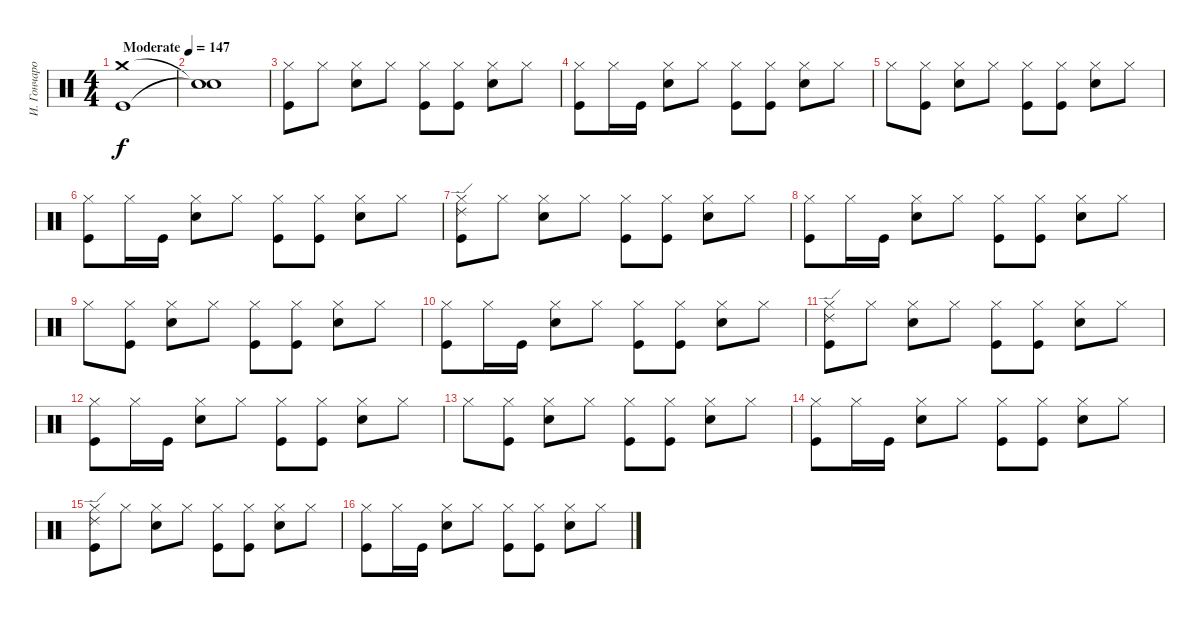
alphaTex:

\track ("И. Гончаров" "И. Гончаро") {instrument percussion}
\staff {score}
\articulation defaults
\ts (4 4)
\tempo (147 "Moderate")
\clef neutral
\ks c
("Crash medium (hit)" "Kick (hit)").1{dy f} |
("Snare (hit)"{t} "Snare (hit)"{t}).1 |
("Hi-Hat (closed)" "Kick (hit)").8 "Hi-Hat (closed)".8 ("Hi-Hat (closed)" "Snare (hit) 2").8 "Hi-Hat (closed)".8 ("Hi-Hat (closed)" "Kick (hit)").8 ("Hi-Hat (closed)" "Kick (hit)").8 ("Hi-Hat (closed)" "Snare (hit) 2").8 "Hi-Hat (closed)".8 |
("Hi-Hat (closed)" "Kick (hit)").8 "Hi-Hat (closed)".16 "Kick (hit)".16 ("Hi-Hat (closed)" "Snare (hit) 2").8 "Hi-Hat (closed)".8 ("Hi-Hat (closed)" "Kick (hit)").8 ("Hi-Hat (closed)" "Kick (hit)").8 ("Hi-Hat (closed)" "Snare (hit) 2").8 "Hi-Hat (closed)".8 |
"Hi-Hat (closed)".8 ("Hi-Hat (closed)" "Kick (hit)").8 ("Hi-Hat (closed)" "Snare (hit) 2").8 "Hi-Hat (closed)".8 ("Hi-Hat (closed)" "Kick (hit)").8 ("Hi-Hat (closed)" "Kick (hit)").8 ("Hi-Hat (closed)" "Snare (hit) 2").8 "Hi-Hat (closed)".8 |
("Hi-Hat (closed)" "Kick (hit)").8 "Hi-Hat (closed)".16 "Kick (hit)".16 ("Hi-Hat (closed)" "Snare (hit) 2").8 "Hi-Hat (closed)".8 ("Hi-Hat (closed)" "Kick (hit)").8 ("Hi-Hat (closed)" "Kick (hit)").8 ("Hi-Hat (closed)" "Snare (hit) 2").8 "Hi-Hat (closed)".8 |
("Ride (edge) 2" "Hi-Hat (closed)" "Kick (hit)").8 "Hi-Hat (closed)".8 ("Hi-Hat (closed)" "Snare (hit) 2").8 "Hi-Hat (closed)".8 ("Hi-Hat (closed)" "Kick (hit)").8 ("Hi-Hat (closed)" "Kick (hit)").8 ("Hi-Hat (closed)" "Snare (hit) 2").8 "Hi-Hat (closed)".8 |
("Hi-Hat (closed)" "Kick (hit)").8 "Hi-Hat (closed)".16 "Kick (hit)".16 ("Hi-Hat (closed)" "Snare (hit) 2").8 "Hi-Hat (closed)".8 ("Hi-Hat (closed)" "Kick (hit)").8 ("Hi-Hat (closed)" "Kick (hit)").8 ("Hi-Hat (closed)" "Snare (hit) 2").8 "Hi-Hat (closed)".8 |
"Hi-Hat (closed)".8 ("Hi-Hat (closed)" "Kick (hit)").8 ("Hi-Hat (closed)" "Snare (hit) 2").8 "Hi-Hat (closed)".8 ("Hi-Hat (closed)" "Kick (hit)").8 ("Hi-Hat (closed)" "Kick (hit)").8 ("Hi-Hat (closed)" "Snare (hit) 2").8 "Hi-Hat (closed)".8 |
("Hi-Hat (closed)" "Kick (hit)").8 "Hi-Hat (closed)".16 "Kick (hit)".16 ("Hi-Hat (closed)" "Snare (hit) 2").8 "Hi-Hat (closed)".8 ("Hi-Hat (closed)" "Kick (hit)").8 ("Hi-Hat (closed)" "Kick (hit)").8 ("Hi-Hat (closed)" "Snare (hit) 2").8 "Hi-Hat (closed)".8 |
("Ride (edge) 2" "Hi-Hat (closed)" "Kick (hit)").8 "Hi-Hat (closed)".8 ("Hi-Hat (closed)" "Snare (hit) 2").8 "Hi-Hat (closed)".8 ("Hi-Hat (closed)" "Kick (hit)").8 ("Hi-Hat (closed)" "Kick (hit)").8 ("Hi-Hat (closed)" "Snare (hit) 2").8 "Hi-Hat (closed)".8 |
("Hi-Hat (closed)" "Kick (hit)").8 "Hi-Hat (closed)".16 "Kick (hit)".16 ("Hi-Hat (closed)" "Snare (hit) 2").8 "Hi-Hat (closed)".8 ("Hi-Hat (closed)" "Kick (hit)").8 ("Hi-Hat (closed)" "Kick (hit)").8 ("Hi-Hat (closed)" "Snare (hit) 2").8 "Hi-Hat (closed)".8 |
"Hi-Hat (closed)".8 ("Hi-Hat (closed)" "Kick (hit)").8 ("Hi-Hat (closed)" "Snare (hit) 2").8 "Hi-Hat (closed)".8 ("Hi-Hat (closed)" "Kick (hit)").8 ("Hi-Hat (closed)" "Kick (hit)").8 ("Hi-Hat (closed)" "Snare (hit) 2").8 "Hi-Hat (closed)".8 |
("Hi-Hat (closed)" "Kick (hit)").8 "Hi-Hat (closed)".16 "Kick (hit)".16 ("Hi-Hat (closed)" "Snare (hit) 2").8 "Hi-Hat (closed)".8 ("Hi-Hat (closed)" "Kick (hit)").8 ("Hi-Hat (closed)" "Kick (hit)").8 ("Hi-Hat (closed)" "Snare (hit) 2").8 "Hi-Hat (closed)".8 |
("Ride (edge) 2" "Hi-Hat (closed)" "Kick (hit)").8 "Hi-Hat (closed)".8 ("Hi-Hat (closed)" "Snare (hit) 2").8 "Hi-Hat (closed)".8 ("Hi-Hat (closed)" "Kick (hit)").8 ("Hi-Hat (closed)" "Kick (hit)").8 ("Hi-Hat (closed)" "Snare (hit) 2").8 "Hi-Hat (closed)".8 |
("Hi-Hat (closed)" "Kick (hit)").8 "Hi-Hat (closed)".16 "Kick (hit)".16 ("Hi-Hat (closed)" "Snare (hit) 2").8 "Hi-Hat (closed)".8 ("Hi-Hat (closed)" "Kick (hit)").8 ("Hi-Hat (closed)" "Kick (hit)").8 ("Hi-Hat (closed)" "Snare (hit) 2").8 "Hi-Hat (closed)".8
